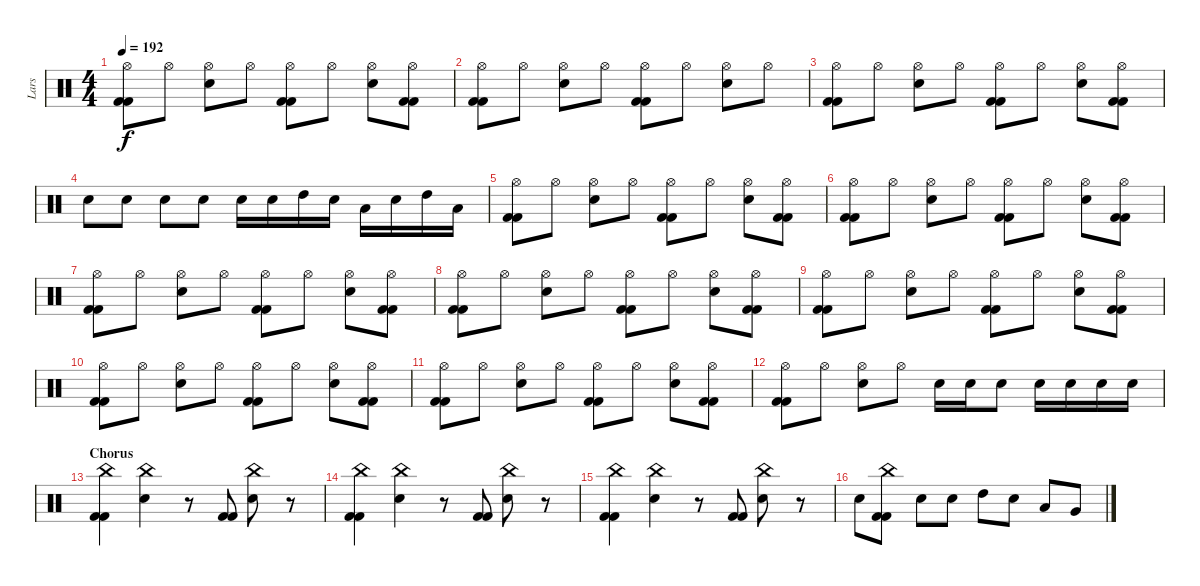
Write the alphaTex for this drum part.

\track ("Lars" "Lars") {instrument percussion}
\staff {score}
\articulation defaults
\ts (4 4)
\tempo 192
\clef neutral
\ks c
("Hi-Hat (open)" "Kick (hit) 2" "Kick (hit) 2").8{dy f} "Hi-Hat (open)".8 ("Electric Snare (hit)" "Hi-Hat (open)").8 "Hi-Hat (open)".8 ("Hi-Hat (open)" "Kick (hit) 2" "Kick (hit) 2").8 "Hi-Hat (open)".8 ("Electric Snare (hit)" "Hi-Hat (open)").8 ("Hi-Hat (open)" "Kick (hit) 2" "Kick (hit) 2").8 |
("Hi-Hat (open)" "Kick (hit) 2" "Kick (hit) 2").8 "Hi-Hat (open)".8 ("Electric Snare (hit)" "Hi-Hat (open)").8 "Hi-Hat (open)".8 ("Hi-Hat (open)" "Kick (hit) 2" "Kick (hit) 2").8 "Hi-Hat (open)".8 ("Electric Snare (hit)" "Hi-Hat (open)").8 "Hi-Hat (open)".8 |
("Hi-Hat (open)" "Kick (hit) 2" "Kick (hit) 2").8 "Hi-Hat (open)".8 ("Electric Snare (hit)" "Hi-Hat (open)").8 "Hi-Hat (open)".8 ("Hi-Hat (open)" "Kick (hit) 2" "Kick (hit) 2").8 "Hi-Hat (open)".8 ("Electric Snare (hit)" "Hi-Hat (open)").8 ("Hi-Hat (open)" "Kick (hit) 2" "Kick (hit) 2").8 |
"Electric Snare (hit)".8 "Electric Snare (hit)".8 "Electric Snare (hit)".8 "Electric Snare (hit)".8 "Electric Snare (hit)".16 "Electric Snare (hit)".16 "High Tom (hit)".16 "Electric Snare (hit)".16 "Low Tom (hit)".16 "Electric Snare (hit)".16 "High Tom (hit)".16 "Low Tom (hit)".16 |
("Hi-Hat (open)" "Kick (hit) 2" "Kick (hit) 2").8 "Hi-Hat (open)".8 ("Electric Snare (hit)" "Hi-Hat (open)").8 "Hi-Hat (open)".8 ("Hi-Hat (open)" "Kick (hit) 2" "Kick (hit) 2").8 "Hi-Hat (open)".8 ("Electric Snare (hit)" "Hi-Hat (open)").8 ("Hi-Hat (open)" "Kick (hit) 2" "Kick (hit) 2").8 |
("Hi-Hat (open)" "Kick (hit) 2" "Kick (hit) 2").8 "Hi-Hat (open)".8 ("Electric Snare (hit)" "Hi-Hat (open)").8 "Hi-Hat (open)".8 ("Hi-Hat (open)" "Kick (hit) 2" "Kick (hit) 2").8 "Hi-Hat (open)".8 ("Electric Snare (hit)" "Hi-Hat (open)").8 ("Kick (hit) 2" "Kick (hit) 2" "Hi-Hat (open)").8 |
("Hi-Hat (open)" "Kick (hit) 2" "Kick (hit) 2").8 "Hi-Hat (open)".8 ("Electric Snare (hit)" "Hi-Hat (open)").8 "Hi-Hat (open)".8 ("Hi-Hat (open)" "Kick (hit) 2" "Kick (hit) 2").8 "Hi-Hat (open)".8 ("Electric Snare (hit)" "Hi-Hat (open)").8 ("Hi-Hat (open)" "Kick (hit) 2" "Kick (hit) 2").8 |
("Hi-Hat (open)" "Kick (hit) 2" "Kick (hit) 2").8 "Hi-Hat (open)".8 ("Electric Snare (hit)" "Hi-Hat (open)").8 "Hi-Hat (open)".8 ("Hi-Hat (open)" "Kick (hit) 2" "Kick (hit) 2").8 "Hi-Hat (open)".8 ("Electric Snare (hit)" "Hi-Hat (open)").8 ("Hi-Hat (open)" "Kick (hit) 2" "Kick (hit) 2").8 |
("Hi-Hat (open)" "Kick (hit) 2" "Kick (hit) 2").8 "Hi-Hat (open)".8 ("Electric Snare (hit)" "Hi-Hat (open)").8 "Hi-Hat (open)".8 ("Hi-Hat (open)" "Kick (hit) 2" "Kick (hit) 2").8 "Hi-Hat (open)".8 ("Electric Snare (hit)" "Hi-Hat (open)").8 ("Kick (hit) 2" "Kick (hit) 2" "Hi-Hat (open)").8 |
("Hi-Hat (open)" "Kick (hit) 2" "Kick (hit) 2").8 "Hi-Hat (open)".8 ("Electric Snare (hit)" "Hi-Hat (open)").8 "Hi-Hat (open)".8 ("Hi-Hat (open)" "Kick (hit) 2" "Kick (hit) 2").8 "Hi-Hat (open)".8 ("Electric Snare (hit)" "Hi-Hat (open)").8 ("Hi-Hat (open)" "Kick (hit) 2" "Kick (hit) 2").8 |
("Hi-Hat (open)" "Kick (hit) 2" "Kick (hit) 2").8 "Hi-Hat (open)".8 ("Electric Snare (hit)" "Hi-Hat (open)").8 "Hi-Hat (open)".8 ("Hi-Hat (open)" "Kick (hit) 2" "Kick (hit) 2").8 "Hi-Hat (open)".8 ("Electric Snare (hit)" "Hi-Hat (open)").8 ("Hi-Hat (open)" "Kick (hit) 2" "Kick (hit) 2").8 |
("Hi-Hat (open)" "Kick (hit) 2" "Kick (hit) 2").8 "Hi-Hat (open)".8 ("Electric Snare (hit)" "Hi-Hat (open)").8 "Hi-Hat (open)".8 "Electric Snare (hit)".16 "Electric Snare (hit)".16 "Electric Snare (hit)".8 "Electric Snare (hit)".16 "Electric Snare (hit)".16 "Electric Snare (hit)".16 "Electric Snare (hit)".16 |
\section ("" "Chorus")
("China (hit)" "Kick (hit) 2" "Kick (hit) 2").4 ("Electric Snare (hit)" "China (hit)").4 r.8 ("Kick (hit) 2" "Kick (hit) 2").8 ("Electric Snare (hit)" "China (hit)").8 r.8 |
("China (hit)" "Kick (hit) 2" "Kick (hit) 2").4 ("Electric Snare (hit)" "China (hit)").4 r.8 ("Kick (hit) 2" "Kick (hit) 2").8 ("Electric Snare (hit)" "China (hit)").8 r.8 |
("China (hit)" "Kick (hit) 2" "Kick (hit) 2").4 ("Electric Snare (hit)" "China (hit)").4 r.8 ("Kick (hit) 2" "Kick (hit) 2").8 ("Electric Snare (hit)" "China (hit)").8 r.8 |
"Electric Snare (hit)".8 ("China (hit)" "Kick (hit) 2" "Kick (hit) 2").8 "Electric Snare (hit)".8 "Electric Snare (hit)".8 "High Tom (hit)".8 "Electric Snare (hit)".8 "Low Tom (hit)".8 "Very Low Tom (hit)".8
